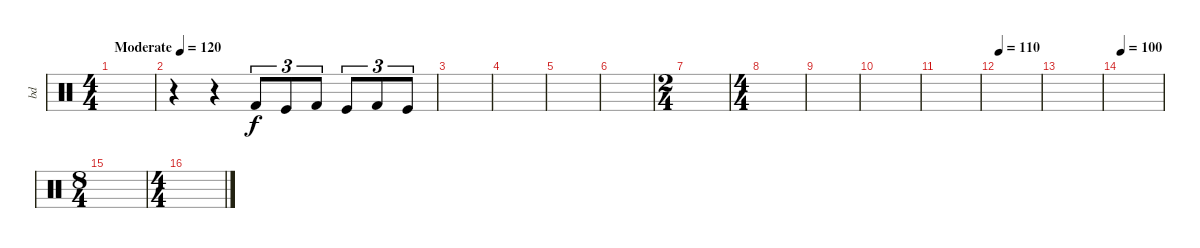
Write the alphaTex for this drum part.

\track ("bd" "bd") {instrument percussion}
\staff
\articulation defaults
\ts (4 4)
\tempo (120 "Moderate")
\clef neutral
\ks c
|
r.4 r.4 "Kick (hit) 2".8{tu (3 2)} "Kick (hit)".8{tu (3 2)} "Kick (hit) 2".8{tu (3 2)} "Kick (hit)".8{tu (3 2)} "Kick (hit) 2".8{tu (3 2)} "Kick (hit)".8{tu (3 2)} |
|
|
|
|
\ts (2 4)
|
\ts (4 4)
|
|
|
|
\tempo 110
|
|
\tempo 100
|
\ts (8 4)
|
\ts (4 4)
